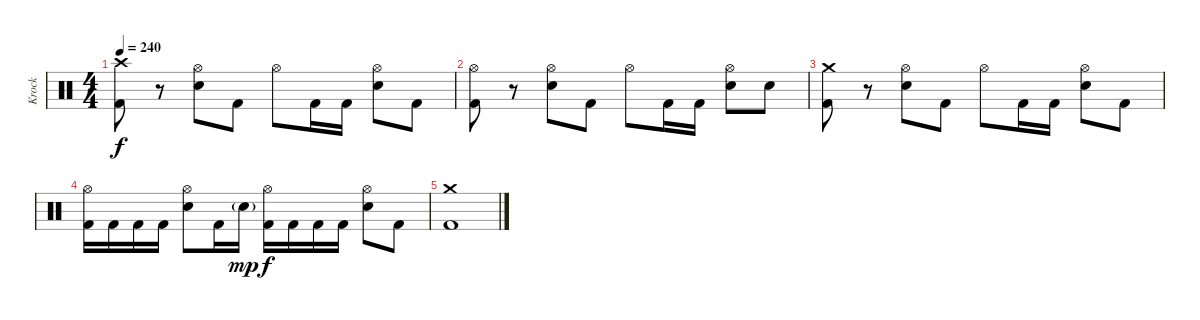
\track ("Krock" "Krock") {instrument percussion}
\staff {score}
\articulation defaults
\ts (4 4)
\tempo 240
\clef neutral
\ks c
("Kick (hit) 2" "Crash high (hit)").8{dy f} r.8 ("Electric Snare (hit)" "Hi-Hat (open)").8 "Kick (hit) 2".8 "Hi-Hat (open)".8 "Kick (hit) 2".16 "Kick (hit) 2".16 ("Electric Snare (hit)" "Hi-Hat (open)").8 "Kick (hit) 2".8 |
("Kick (hit) 2" "Hi-Hat (open)").8 r.8 ("Electric Snare (hit)" "Hi-Hat (open)").8 "Kick (hit) 2".8 "Hi-Hat (open)".8 "Kick (hit) 2".16 "Kick (hit) 2".16 ("Electric Snare (hit)" "Hi-Hat (open)").8 "Electric Snare (hit)".8 |
("Kick (hit) 2" "Crash medium (hit)").8 r.8 ("Electric Snare (hit)" "Hi-Hat (open)").8 "Kick (hit) 2".8 "Hi-Hat (open)".8 "Kick (hit) 2".16 "Kick (hit) 2".16 ("Electric Snare (hit)" "Hi-Hat (open)").8 "Kick (hit) 2".8 |
("Kick (hit) 2" "Hi-Hat (open)").16 "Kick (hit) 2".16 "Kick (hit) 2".16 "Kick (hit) 2".16 ("Electric Snare (hit)" "Hi-Hat (open)").8 "Kick (hit) 2".16 "Electric Snare (hit)"{g}.16{dy mp} ("Kick (hit) 2" "Hi-Hat (open)").16{dy f} "Kick (hit) 2".16 "Kick (hit) 2".16 "Kick (hit) 2".16 ("Electric Snare (hit)" "Hi-Hat (open)").8 "Kick (hit) 2".8 |
("Kick (hit) 2" "Crash medium (hit)").1
